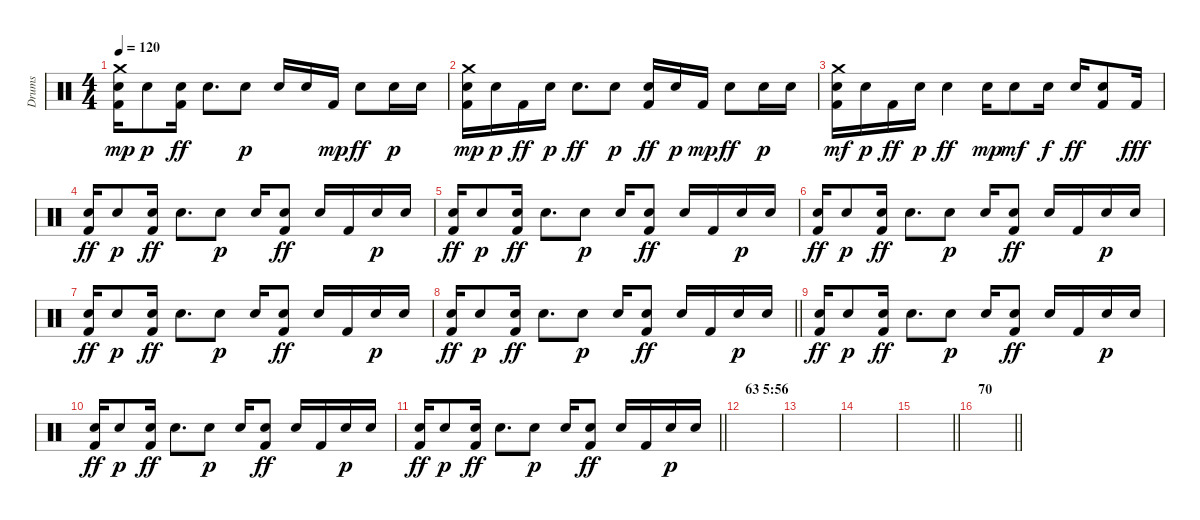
\track ("Drums" "Drums") {instrument percussion}
\staff {score}
\articulation defaults
\ts (4 4)
\tempo 120
\clef neutral
\ks c
("Snare (hit) 2" "Kick (hit) 2" "Crash medium (hit)").16{dy mp} "Snare (hit) 2".8{dy p} ("Snare (hit) 2" "Kick (hit) 2").16{dy ff} "Snare (hit) 2".8{d} "Snare (hit) 2".8{dy p} "Snare (hit) 2".16 "Snare (hit) 2".16 "Kick (hit) 2".16{dy mp} "Snare (hit) 2".8{dy ff} "Snare (hit) 2".16{dy p} "Snare (hit) 2".16 |
("Snare (hit) 2" "Kick (hit) 2" "Crash medium (hit)").16{dy mp} "Snare (hit) 2".16{dy p} "Kick (hit) 2".16{dy ff} "Snare (hit) 2".16{dy p} "Snare (hit) 2".8{d dy ff} "Snare (hit) 2".8{dy p} ("Snare (hit) 2" "Kick (hit) 2").16{dy ff} "Snare (hit) 2".16{dy p} "Kick (hit) 2".16{dy mp} "Snare (hit) 2".8{dy ff} "Snare (hit) 2".16{dy p} "Snare (hit) 2".16 |
("Snare (hit) 2" "Kick (hit) 2" "Crash medium (hit)").16{dy mf} "Snare (hit) 2".16{dy p} "Kick (hit) 2".16{dy ff} "Snare (hit) 2".16{dy p} "Snare (hit) 2".4{dy ff} "Snare (hit) 2".16{dy mp} "Snare (hit) 2".8{dy mf} "Snare (hit) 2".16{dy f} "Snare (hit) 2".16{dy ff} ("Snare (hit) 2" "Kick (hit) 2").8 "Kick (hit) 2".16{dy fff} |
("Snare (hit) 2" "Kick (hit) 2").16{dy ff} "Snare (hit) 2".8{dy p} ("Snare (hit) 2" "Kick (hit) 2").16{dy ff} "Snare (hit) 2".8{d} "Snare (hit) 2".8{dy p} "Snare (hit) 2".16 ("Snare (hit) 2" "Kick (hit) 2").8{dy ff} "Snare (hit) 2".16 "Kick (hit) 2".16 "Snare (hit) 2".16{dy p} "Snare (hit) 2".16 |
("Snare (hit) 2" "Kick (hit) 2").16{dy ff} "Snare (hit) 2".8{dy p} ("Snare (hit) 2" "Kick (hit) 2").16{dy ff} "Snare (hit) 2".8{d} "Snare (hit) 2".8{dy p} "Snare (hit) 2".16 ("Snare (hit) 2" "Kick (hit) 2").8{dy ff} "Snare (hit) 2".16 "Kick (hit) 2".16 "Snare (hit) 2".16{dy p} "Snare (hit) 2".16 |
("Snare (hit) 2" "Kick (hit) 2").16{dy ff} "Snare (hit) 2".8{dy p} ("Snare (hit) 2" "Kick (hit) 2").16{dy ff} "Snare (hit) 2".8{d} "Snare (hit) 2".8{dy p} "Snare (hit) 2".16 ("Snare (hit) 2" "Kick (hit) 2").8{dy ff} "Snare (hit) 2".16 "Kick (hit) 2".16 "Snare (hit) 2".16{dy p} "Snare (hit) 2".16 |
("Snare (hit) 2" "Kick (hit) 2").16{dy ff} "Snare (hit) 2".8{dy p} ("Snare (hit) 2" "Kick (hit) 2").16{dy ff} "Snare (hit) 2".8{d} "Snare (hit) 2".8{dy p} "Snare (hit) 2".16 ("Snare (hit) 2" "Kick (hit) 2").8{dy ff} "Snare (hit) 2".16 "Kick (hit) 2".16 "Snare (hit) 2".16{dy p} "Snare (hit) 2".16 |
\barLineRight lightlight
("Snare (hit) 2" "Kick (hit) 2").16{dy ff} "Snare (hit) 2".8{dy p} ("Snare (hit) 2" "Kick (hit) 2").16{dy ff} "Snare (hit) 2".8{d} "Snare (hit) 2".8{dy p} "Snare (hit) 2".16 ("Snare (hit) 2" "Kick (hit) 2").8{dy ff} "Snare (hit) 2".16 "Kick (hit) 2".16 "Snare (hit) 2".16{dy p} "Snare (hit) 2".16 |
("Snare (hit) 2" "Kick (hit) 2").16{dy ff} "Snare (hit) 2".8{dy p} ("Snare (hit) 2" "Kick (hit) 2").16{dy ff} "Snare (hit) 2".8{d} "Snare (hit) 2".8{dy p} "Snare (hit) 2".16 ("Snare (hit) 2" "Kick (hit) 2").8{dy ff} "Snare (hit) 2".16 "Kick (hit) 2".16 "Snare (hit) 2".16{dy p} "Snare (hit) 2".16 |
("Snare (hit) 2" "Kick (hit) 2").16{dy ff} "Snare (hit) 2".8{dy p} ("Snare (hit) 2" "Kick (hit) 2").16{dy ff} "Snare (hit) 2".8{d} "Snare (hit) 2".8{dy p} "Snare (hit) 2".16 ("Snare (hit) 2" "Kick (hit) 2").8{dy ff} "Snare (hit) 2".16 "Kick (hit) 2".16 "Snare (hit) 2".16{dy p} "Snare (hit) 2".16 |
\barLineRight lightlight
("Snare (hit) 2" "Kick (hit) 2").16{dy ff} "Snare (hit) 2".8{dy p} ("Snare (hit) 2" "Kick (hit) 2").16{dy ff} "Snare (hit) 2".8{d} "Snare (hit) 2".8{dy p} "Snare (hit) 2".16 ("Snare (hit) 2" "Kick (hit) 2").8{dy ff} "Snare (hit) 2".16 "Kick (hit) 2".16 "Snare (hit) 2".16{dy p} "Snare (hit) 2".16 |
\section ("" "63 5:56")
|
|
|
\barLineRight lightlight
|
\section ("" "70")
\barLineRight lightlight
